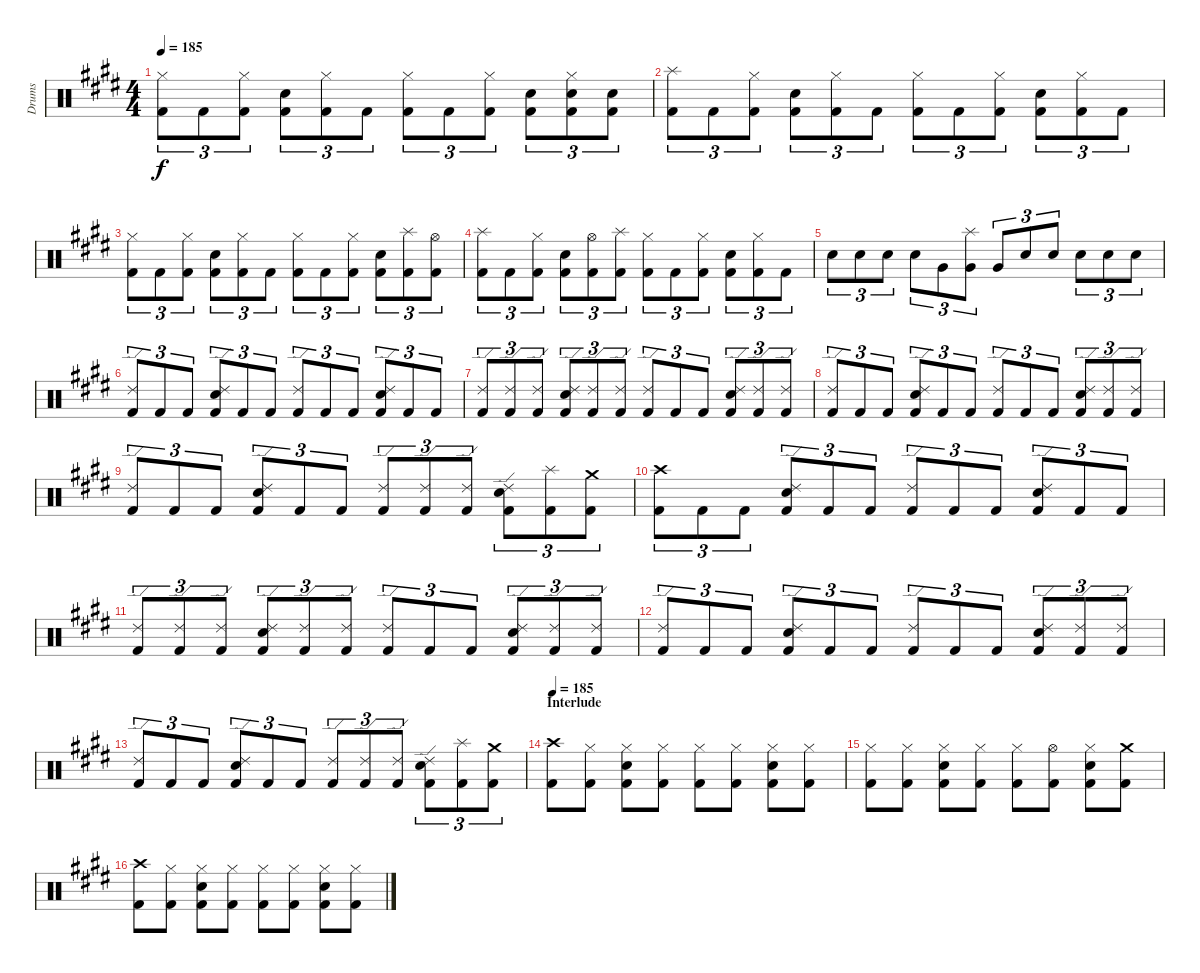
\track ("Drums" "Drums") {instrument percussion}
\staff {score}
\articulation defaults
\ts (4 4)
\tempo 185
\clef neutral
\ks e
("Hi-Hat (closed)" "Kick (hit) 2").8{tu (3 2) dy f} "Kick (hit) 2".8{tu (3 2)} ("Hi-Hat (closed)" "Kick (hit) 2").8{tu (3 2)} ("Electric Snare (hit)" "Kick (hit) 2").8{tu (3 2)} ("Hi-Hat (closed)" "Kick (hit) 2").8{tu (3 2)} "Kick (hit) 2".8{tu (3 2)} ("Hi-Hat (closed)" "Kick (hit) 2").8{tu (3 2)} "Kick (hit) 2".8{tu (3 2)} ("Hi-Hat (closed)" "Kick (hit) 2").8{tu (3 2)} ("Electric Snare (hit)" "Kick (hit) 2").8{tu (3 2)} ("Hi-Hat (closed)" "Electric Snare (hit)" "Kick (hit) 2").8{tu (3 2)} ("Electric Snare (hit)" "Kick (hit) 2").8{tu (3 2)} |
("Splash (hit)" "Kick (hit) 2").8{tu (3 2)} "Kick (hit) 2".8{tu (3 2)} ("Hi-Hat (closed)" "Kick (hit) 2").8{tu (3 2)} ("Electric Snare (hit)" "Kick (hit) 2").8{tu (3 2)} ("Hi-Hat (closed)" "Kick (hit) 2").8{tu (3 2)} "Kick (hit) 2".8{tu (3 2)} ("Hi-Hat (closed)" "Kick (hit) 2").8{tu (3 2)} "Kick (hit) 2".8{tu (3 2)} ("Hi-Hat (closed)" "Kick (hit) 2").8{tu (3 2)} ("Electric Snare (hit)" "Kick (hit) 2").8{tu (3 2)} ("Hi-Hat (closed)" "Kick (hit) 2").8{tu (3 2)} "Kick (hit) 2".8{tu (3 2)} |
("Hi-Hat (closed)" "Kick (hit) 2").8{tu (3 2)} "Kick (hit) 2".8{tu (3 2)} ("Hi-Hat (closed)" "Kick (hit) 2").8{tu (3 2)} ("Electric Snare (hit)" "Kick (hit) 2").8{tu (3 2)} ("Hi-Hat (closed)" "Kick (hit) 2").8{tu (3 2)} "Kick (hit) 2".8{tu (3 2)} ("Hi-Hat (closed)" "Kick (hit) 2").8{tu (3 2)} "Kick (hit) 2".8{tu (3 2)} ("Hi-Hat (closed)" "Kick (hit) 2").8{tu (3 2)} ("Electric Snare (hit)" "Kick (hit) 2").8{tu (3 2)} ("Splash (hit)" "Kick (hit) 2").8{tu (3 2)} ("Hi-Hat (open)" "Kick (hit) 2").8{tu (3 2)} |
("Splash (hit)" "Kick (hit) 2").8{tu (3 2)} "Kick (hit) 2".8{tu (3 2)} ("Hi-Hat (closed)" "Kick (hit) 2").8{tu (3 2)} ("Electric Snare (hit)" "Kick (hit) 2").8{tu (3 2)} ("Hi-Hat (open)" "Kick (hit) 2").8{tu (3 2)} ("Splash (hit)" "Kick (hit) 2").8{tu (3 2)} ("Hi-Hat (closed)" "Kick (hit) 2").8{tu (3 2)} "Kick (hit) 2".8{tu (3 2)} ("Hi-Hat (closed)" "Kick (hit) 2").8{tu (3 2)} ("Electric Snare (hit)" "Kick (hit) 2").8{tu (3 2)} ("Hi-Hat (closed)" "Kick (hit) 2").8{tu (3 2)} "Kick (hit) 2".8{tu (3 2)} |
"Electric Snare (hit)".8{tu (3 2)} "Electric Snare (hit)".8{tu (3 2)} "Electric Snare (hit)".8{tu (3 2)} "Electric Snare (hit)".8{tu (3 2)} "Very Low Tom (hit)".8{tu (3 2)} ("Splash (hit)" "Very Low Tom (hit)").8{tu (3 2)} "Very Low Tom (hit)".8{tu (3 2)} "Electric Snare (hit)".8{tu (3 2)} "Electric Snare (hit)".8{tu (3 2)} "Electric Snare (hit)".8{tu (3 2)} "Electric Snare (hit)".8{tu (3 2)} "Electric Snare (hit)".8{tu (3 2)} |
("Ride (edge) 2" "Kick (hit) 2").8{tu (3 2)} "Kick (hit) 2".8{tu (3 2)} "Kick (hit) 2".8{tu (3 2)} ("Ride (edge) 2" "Electric Snare (hit)" "Kick (hit) 2").8{tu (3 2)} "Kick (hit) 2".8{tu (3 2)} "Kick (hit) 2".8{tu (3 2)} ("Ride (edge) 2" "Kick (hit) 2").8{tu (3 2)} "Kick (hit) 2".8{tu (3 2)} "Kick (hit) 2".8{tu (3 2)} ("Ride (edge) 2" "Electric Snare (hit)" "Kick (hit) 2").8{tu (3 2)} "Kick (hit) 2".8{tu (3 2)} "Kick (hit) 2".8{tu (3 2)} |
("Ride (edge) 2" "Kick (hit) 2").8{tu (3 2)} ("Ride (edge) 2" "Kick (hit) 2").8{tu (3 2)} ("Ride (edge) 2" "Kick (hit) 2").8{tu (3 2)} ("Ride (edge) 2" "Electric Snare (hit)" "Kick (hit) 2").8{tu (3 2)} ("Ride (edge) 2" "Kick (hit) 2").8{tu (3 2)} ("Ride (edge) 2" "Kick (hit) 2").8{tu (3 2)} ("Ride (edge) 2" "Kick (hit) 2").8{tu (3 2)} "Kick (hit) 2".8{tu (3 2)} "Kick (hit) 2".8{tu (3 2)} ("Ride (edge) 2" "Electric Snare (hit)" "Kick (hit) 2").8{tu (3 2)} ("Ride (edge) 2" "Kick (hit) 2").8{tu (3 2)} ("Ride (edge) 2" "Kick (hit) 2").8{tu (3 2)} |
("Ride (edge) 2" "Kick (hit) 2").8{tu (3 2)} "Kick (hit) 2".8{tu (3 2)} "Kick (hit) 2".8{tu (3 2)} ("Ride (edge) 2" "Electric Snare (hit)" "Kick (hit) 2").8{tu (3 2)} "Kick (hit) 2".8{tu (3 2)} "Kick (hit) 2".8{tu (3 2)} ("Ride (edge) 2" "Kick (hit) 2").8{tu (3 2)} "Kick (hit) 2".8{tu (3 2)} "Kick (hit) 2".8{tu (3 2)} ("Ride (edge) 2" "Electric Snare (hit)" "Kick (hit) 2").8{tu (3 2)} ("Ride (edge) 2" "Kick (hit) 2").8{tu (3 2)} ("Ride (edge) 2" "Kick (hit) 2").8{tu (3 2)} |
("Ride (edge) 2" "Kick (hit) 2").8{tu (3 2)} "Kick (hit) 2".8{tu (3 2)} "Kick (hit) 2".8{tu (3 2)} ("Ride (edge) 2" "Electric Snare (hit)" "Kick (hit) 2").8{tu (3 2)} "Kick (hit) 2".8{tu (3 2)} "Kick (hit) 2".8{tu (3 2)} ("Ride (edge) 2" "Kick (hit) 2").8{tu (3 2)} ("Ride (edge) 2" "Kick (hit) 2").8{tu (3 2)} ("Ride (edge) 2" "Kick (hit) 2").8{tu (3 2)} ("Ride (edge) 2" "Electric Snare (hit)" "Kick (hit) 2").8{tu (3 2)} ("Splash (hit)" "Kick (hit) 2").8{tu (3 2)} ("Crash medium (hit)" "Kick (hit) 2").8{tu (3 2)} |
("Crash high (hit)" "Kick (hit) 2").8{tu (3 2)} "Kick (hit) 2".8{tu (3 2)} "Kick (hit) 2".8{tu (3 2)} ("Ride (edge) 2" "Electric Snare (hit)" "Kick (hit) 2").8{tu (3 2)} "Kick (hit) 2".8{tu (3 2)} "Kick (hit) 2".8{tu (3 2)} ("Ride (edge) 2" "Kick (hit) 2").8{tu (3 2)} "Kick (hit) 2".8{tu (3 2)} "Kick (hit) 2".8{tu (3 2)} ("Ride (edge) 2" "Electric Snare (hit)" "Kick (hit) 2").8{tu (3 2)} "Kick (hit) 2".8{tu (3 2)} "Kick (hit) 2".8{tu (3 2)} |
("Ride (edge) 2" "Kick (hit) 2").8{tu (3 2)} ("Ride (edge) 2" "Kick (hit) 2").8{tu (3 2)} ("Ride (edge) 2" "Kick (hit) 2").8{tu (3 2)} ("Ride (edge) 2" "Electric Snare (hit)" "Kick (hit) 2").8{tu (3 2)} ("Ride (edge) 2" "Kick (hit) 2").8{tu (3 2)} ("Ride (edge) 2" "Kick (hit) 2").8{tu (3 2)} ("Ride (edge) 2" "Kick (hit) 2").8{tu (3 2)} "Kick (hit) 2".8{tu (3 2)} "Kick (hit) 2".8{tu (3 2)} ("Ride (edge) 2" "Electric Snare (hit)" "Kick (hit) 2").8{tu (3 2)} ("Ride (edge) 2" "Kick (hit) 2").8{tu (3 2)} ("Ride (edge) 2" "Kick (hit) 2").8{tu (3 2)} |
("Ride (edge) 2" "Kick (hit) 2").8{tu (3 2)} "Kick (hit) 2".8{tu (3 2)} "Kick (hit) 2".8{tu (3 2)} ("Ride (edge) 2" "Electric Snare (hit)" "Kick (hit) 2").8{tu (3 2)} "Kick (hit) 2".8{tu (3 2)} "Kick (hit) 2".8{tu (3 2)} ("Ride (edge) 2" "Kick (hit) 2").8{tu (3 2)} "Kick (hit) 2".8{tu (3 2)} "Kick (hit) 2".8{tu (3 2)} ("Ride (edge) 2" "Electric Snare (hit)" "Kick (hit) 2").8{tu (3 2)} ("Ride (edge) 2" "Kick (hit) 2").8{tu (3 2)} ("Ride (edge) 2" "Kick (hit) 2").8{tu (3 2)} |
("Ride (edge) 2" "Kick (hit) 2").8{tu (3 2)} "Kick (hit) 2".8{tu (3 2)} "Kick (hit) 2".8{tu (3 2)} ("Ride (edge) 2" "Electric Snare (hit)" "Kick (hit) 2").8{tu (3 2)} "Kick (hit) 2".8{tu (3 2)} "Kick (hit) 2".8{tu (3 2)} ("Ride (edge) 2" "Kick (hit) 2").8{tu (3 2)} ("Ride (edge) 2" "Kick (hit) 2").8{tu (3 2)} ("Ride (edge) 2" "Kick (hit) 2").8{tu (3 2)} ("Ride (edge) 2" "Electric Snare (hit)" "Kick (hit) 2").8{tu (3 2)} ("Splash (hit)" "Kick (hit) 2").8{tu (3 2)} ("Crash medium (hit)" "Kick (hit) 2").8{tu (3 2)} |
\section ("" "Interlude")
\tempo 185
("Crash high (hit)" "Kick (hit) 2").8 ("Hi-Hat (closed)" "Kick (hit) 2").8 ("Hi-Hat (closed)" "Electric Snare (hit)" "Kick (hit) 2").8 ("Hi-Hat (closed)" "Kick (hit) 2").8 ("Hi-Hat (closed)" "Kick (hit) 2").8 ("Hi-Hat (closed)" "Kick (hit) 2").8 ("Hi-Hat (closed)" "Electric Snare (hit)" "Kick (hit) 2").8 ("Hi-Hat (closed)" "Kick (hit) 2").8 |
("Hi-Hat (closed)" "Kick (hit) 2").8 ("Hi-Hat (closed)" "Kick (hit) 2").8 ("Hi-Hat (closed)" "Electric Snare (hit)" "Kick (hit) 2").8 ("Hi-Hat (closed)" "Kick (hit) 2").8 ("Hi-Hat (closed)" "Kick (hit) 2").8 ("Hi-Hat (open)" "Kick (hit) 2").8 ("Hi-Hat (closed)" "Electric Snare (hit)" "Kick (hit) 2").8 ("Crash medium (hit)" "Kick (hit) 2").8 |
("Crash high (hit)" "Kick (hit) 2").8 ("Hi-Hat (closed)" "Kick (hit) 2").8 ("Hi-Hat (closed)" "Electric Snare (hit)" "Kick (hit) 2").8 ("Hi-Hat (closed)" "Kick (hit) 2").8 ("Hi-Hat (closed)" "Kick (hit) 2").8 ("Hi-Hat (closed)" "Kick (hit) 2").8 ("Hi-Hat (closed)" "Electric Snare (hit)" "Kick (hit) 2").8 ("Hi-Hat (closed)" "Kick (hit) 2").8
